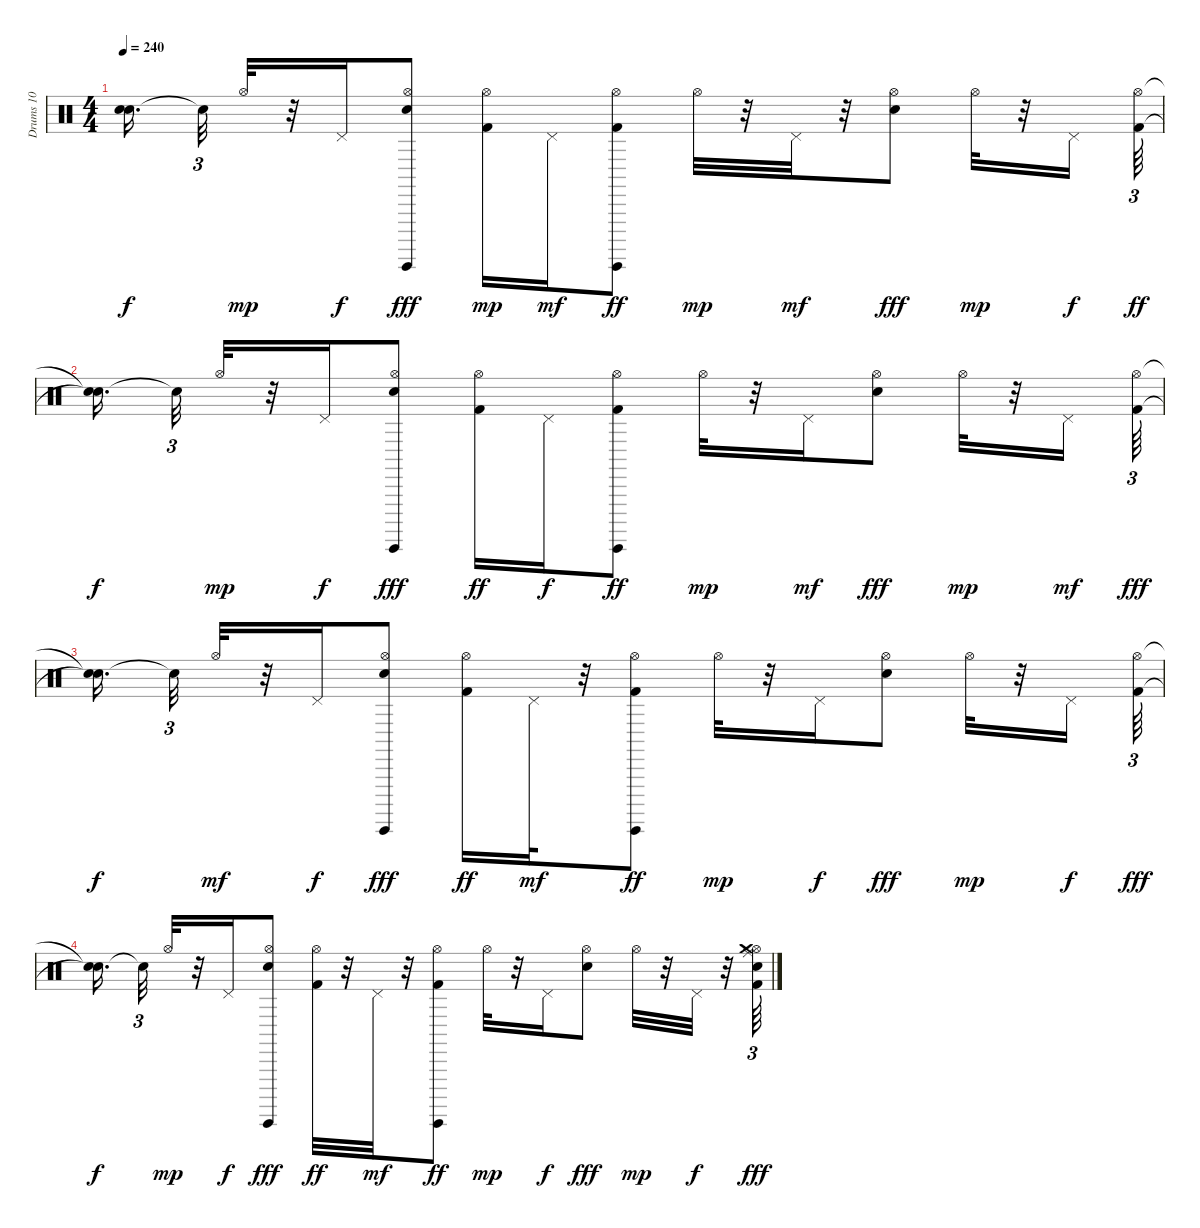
\track ("Drums 10" "Drums 10") {instrument percussion}
\staff {score}
\articulation defaults
\ts (4 4)
\tempo 240
\clef neutral
\ks c
("Snare (hit)"{t} "Snare (hit)"{t}).16{d dy f beam splitsecondary} "Snare (hit)"{t}.32{tu (3 2)} "Hi-Hat (open)".32{dy mp} r.32 "Pedal Hi-Hat (hit)".16{dy f} ("Hi-Hat (open)" "Guiro (hit)" "Snare (hit) 2").8{dy fff} ("Hi-Hat (open)" "Kick (hit) 2").16{dy mp} "Pedal Hi-Hat (hit)".16{dy mf} ("Hi-Hat (open)" "Guiro (hit)" "Kick (hit) 2").8{dy ff} "Hi-Hat (open)".32{dy mp} r.32 "Pedal Hi-Hat (hit)".32{dy mf} r.32 ("Hi-Hat (open)" "Snare (hit) 2").8{dy fff} "Hi-Hat (open)".32{dy mp} r.32 "Pedal Hi-Hat (hit)".16{dy f} ("Hi-Hat (open)" "Kick (hit) 2").64{tu (3 2) dy ff} |
("Snare (hit)"{t} "Snare (hit)"{t}).16{d dy f beam splitsecondary} "Snare (hit)"{t}.32{tu (3 2)} "Hi-Hat (open)".32{dy mp} r.32 "Pedal Hi-Hat (hit)".16{dy f} ("Hi-Hat (open)" "Guiro (hit)" "Snare (hit) 2").8{dy fff} ("Hi-Hat (open)" "Kick (hit) 2").16{dy ff} "Pedal Hi-Hat (hit)".16{dy f} ("Hi-Hat (open)" "Guiro (hit)" "Kick (hit) 2").8{dy ff} "Hi-Hat (open)".32{dy mp} r.32 "Pedal Hi-Hat (hit)".16{dy mf} ("Hi-Hat (open)" "Snare (hit) 2").8{dy fff} "Hi-Hat (open)".32{dy mp} r.32 "Pedal Hi-Hat (hit)".16{dy mf} ("Hi-Hat (open)" "Kick (hit) 2").64{tu (3 2) dy fff} |
("Snare (hit)"{t} "Snare (hit)"{t}).16{d dy f beam splitsecondary} "Snare (hit)"{t}.32{tu (3 2)} "Hi-Hat (open)".32{dy mf} r.32 "Pedal Hi-Hat (hit)".16{dy f} ("Hi-Hat (open)" "Guiro (hit)" "Snare (hit) 2").8{dy fff} ("Hi-Hat (open)" "Kick (hit) 2").16{dy ff} "Pedal Hi-Hat (hit)".32{dy mf} r.32 ("Hi-Hat (open)" "Guiro (hit)" "Kick (hit) 2").8{dy ff} "Hi-Hat (open)".32{dy mp} r.32 "Pedal Hi-Hat (hit)".16{dy f} ("Hi-Hat (open)" "Snare (hit) 2").8{dy fff} "Hi-Hat (open)".32{dy mp} r.32 "Pedal Hi-Hat (hit)".16{dy f} ("Hi-Hat (open)" "Kick (hit) 2").64{tu (3 2) dy fff} |
("Snare (hit)"{t} "Snare (hit)"{t}).16{d dy f beam splitsecondary} "Snare (hit)"{t}.32{tu (3 2)} "Hi-Hat (open)".32{dy mp} r.32 "Pedal Hi-Hat (hit)".16{dy f} ("Hi-Hat (open)" "Guiro (hit)" "Snare (hit) 2").8{dy fff} ("Hi-Hat (open)" "Kick (hit) 2").32{dy ff} r.32 "Pedal Hi-Hat (hit)".32{dy mf} r.32 ("Hi-Hat (open)" "Guiro (hit)" "Kick (hit) 2").8{dy ff} "Hi-Hat (open)".32{dy mp} r.32 "Pedal Hi-Hat (hit)".16{dy f} ("Hi-Hat (open)" "Snare (hit) 2").8{dy fff} "Hi-Hat (open)".32{dy mp} r.32 "Pedal Hi-Hat (hit)".32{dy f} r.32 ("Hi-Hat (open)" "Kick (hit) 2" "Electric Snare (hit)" "Ride (middle)" "Crash medium (hit)").64{tu (3 2) dy fff}
